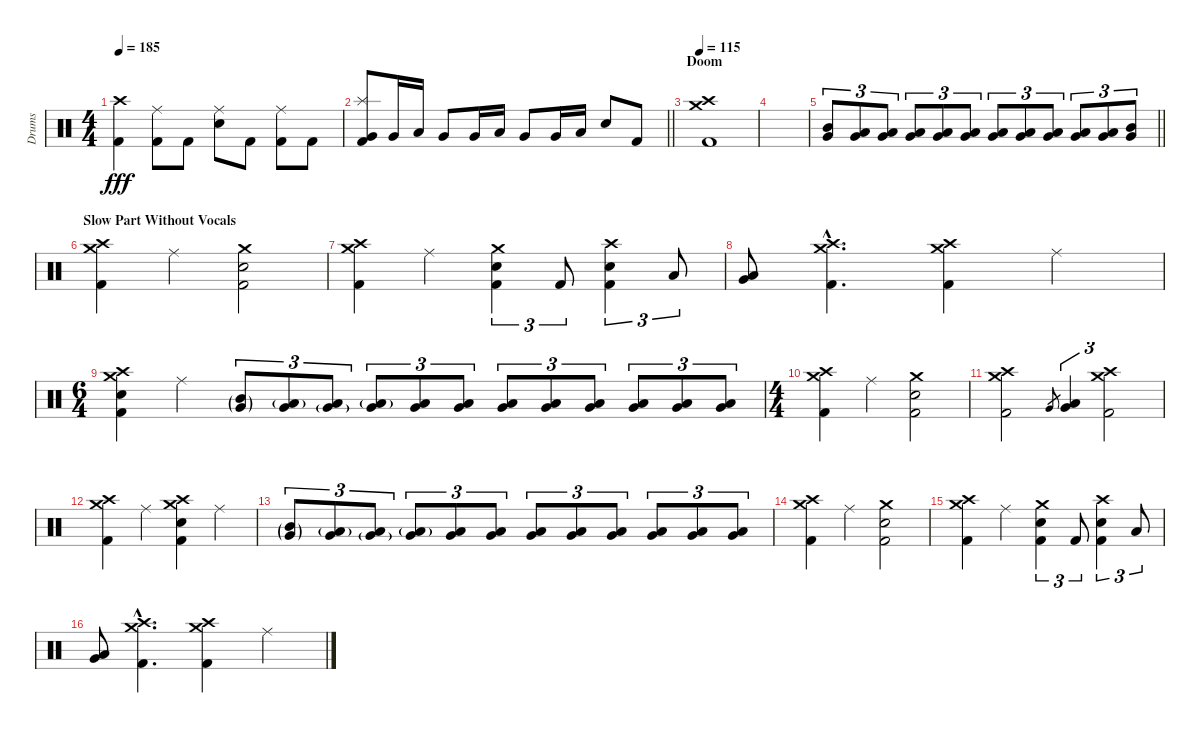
\track ("Drums" "Drums") {instrument percussion}
\staff {score}
\articulation defaults
\ts (4 4)
\tempo 185
\clef neutral
\ks c
("Crash high (hit)" "Kick (hit) 2").4{dy fff} ("Ride (middle)" "Kick (hit) 2").8 "Kick (hit) 2".8 ("Ride (middle)" "Electric Snare (hit)").8 "Kick (hit) 2".8 ("Ride (middle)" "Kick (hit) 2").8 "Kick (hit) 2".8 |
\barLineRight lightlight
("Splash (hit)" "Very Low Tom (hit)" "Kick (hit) 2").8 "Very Low Tom (hit)".16 "Low Floor Tom (hit)".16 "Very Low Tom (hit)".8 "Very Low Tom (hit)".16 "Low Floor Tom (hit)".16 "Very Low Tom (hit)".8 "Very Low Tom (hit)".16 "Low Floor Tom (hit)".16 "Electric Snare (hit)".8 "Kick (hit) 2".8 |
\section ("" "Doom")
\tempo 115
("Crash high (hit)" "Crash medium (hit)" "Kick (hit) 2").1 |
|
\barLineRight lightlight
("Mid Tom (hit)" "Very Low Tom (hit)").8{tu (3 2)} ("Low Tom (hit)" "Very Low Tom (hit)").8{tu (3 2)} ("Low Tom (hit)" "Very Low Tom (hit)").8{tu (3 2)} ("Low Tom (hit)" "Very Low Tom (hit)").8{tu (3 2)} ("Low Tom (hit)" "Very Low Tom (hit)").8{tu (3 2)} ("Low Tom (hit)" "Very Low Tom (hit)").8{tu (3 2)} ("Low Tom (hit)" "Very Low Tom (hit)").8{tu (3 2)} ("Low Tom (hit)" "Very Low Tom (hit)").8{tu (3 2)} ("Low Tom (hit)" "Very Low Tom (hit)").8{tu (3 2)} ("Low Tom (hit)" "Very Low Tom (hit)").8{tu (3 2)} ("Low Tom (hit)" "Very Low Tom (hit)").8{tu (3 2)} ("Mid Tom (hit)" "Very Low Tom (hit)").8{tu (3 2)} |
\section ("" "Slow Part Without Vocals")
("Crash high (hit)" "Crash medium (hit)" "Kick (hit) 2").4 "Ride (middle)".4 ("Crash medium (hit)" "Electric Snare (hit)" "Kick (hit) 2").2 |
("Crash high (hit)" "Crash medium (hit)" "Kick (hit) 2").4 "Ride (middle)".4 ("Crash medium (hit)" "Electric Snare (hit)" "Kick (hit) 2").4{tu (3 2)} "Kick (hit) 2".8{tu (3 2)} ("Crash high (hit)" "Electric Snare (hit)" "Kick (hit) 2").4{tu (3 2)} "Low Tom (hit)".8{tu (3 2)} |
("Low Floor Tom (hit)" "Very Low Tom (hit)").8 ("Crash high (hit)"{hac} "Crash medium (hit)"{hac} "Kick (hit) 2"{hac}).4{d} ("Crash high (hit)" "Crash medium (hit)" "Kick (hit) 2").4 "Ride (middle)".4 |
\ts (6 4)
("Crash high (hit)" "Crash medium (hit)" "Electric Snare (hit)" "Kick (hit) 2").4 "Ride (middle)".4 ("Mid Tom (hit)"{g} "Very Low Tom (hit)"{g}).8{tu (3 2)} ("Low Tom (hit)"{g} "Very Low Tom (hit)").8{tu (3 2)} ("Low Tom (hit)" "Very Low Tom (hit)"{g}).8{tu (3 2)} ("Low Tom (hit)"{g} "Very Low Tom (hit)").8{tu (3 2)} ("Low Tom (hit)" "Very Low Tom (hit)").8{tu (3 2)} ("Low Tom (hit)" "Very Low Tom (hit)").8{tu (3 2)} ("Low Tom (hit)" "Very Low Tom (hit)").8{tu (3 2)} ("Low Tom (hit)" "Very Low Tom (hit)").8{tu (3 2)} ("Low Tom (hit)" "Very Low Tom (hit)").8{tu (3 2)} ("Low Tom (hit)" "Very Low Tom (hit)").8{tu (3 2)} ("Low Tom (hit)" "Very Low Tom (hit)").8{tu (3 2)} ("Low Tom (hit)" "Very Low Tom (hit)").8{tu (3 2)} |
\ts (4 4)
("Crash high (hit)" "Crash medium (hit)" "Kick (hit) 2").4 "Ride (middle)".4 ("Crash medium (hit)" "Electric Snare (hit)" "Kick (hit) 2").2 |
("Crash high (hit)" "Crash medium (hit)" "Kick (hit) 2").2 "Very Low Tom (hit)".8{gr} ("Very Low Tom (hit)" "Low Tom (hit)").4{tu (3 2)} ("Crash high (hit)" "Crash medium (hit)" "Kick (hit) 2").2{tu (3 2)} |
("Crash high (hit)" "Crash medium (hit)" "Kick (hit) 2").4 "Ride (middle)".4 ("Crash high (hit)" "Crash medium (hit)" "Electric Snare (hit)" "Kick (hit) 2").4 "Ride (middle)".4 |
("Mid Tom (hit)"{g} "Very Low Tom (hit)"{g}).8{tu (3 2)} ("Low Tom (hit)"{g} "Very Low Tom (hit)").8{tu (3 2)} ("Low Tom (hit)" "Very Low Tom (hit)"{g}).8{tu (3 2)} ("Low Tom (hit)"{g} "Very Low Tom (hit)").8{tu (3 2)} ("Low Tom (hit)" "Very Low Tom (hit)").8{tu (3 2)} ("Low Tom (hit)" "Very Low Tom (hit)").8{tu (3 2)} ("Low Tom (hit)" "Very Low Tom (hit)").8{tu (3 2)} ("Low Tom (hit)" "Very Low Tom (hit)").8{tu (3 2)} ("Low Tom (hit)" "Very Low Tom (hit)").8{tu (3 2)} ("Low Tom (hit)" "Very Low Tom (hit)").8{tu (3 2)} ("Low Tom (hit)" "Very Low Tom (hit)").8{tu (3 2)} ("Low Tom (hit)" "Very Low Tom (hit)").8{tu (3 2)} |
("Crash high (hit)" "Crash medium (hit)" "Kick (hit) 2").4 "Ride (middle)".4 ("Crash medium (hit)" "Electric Snare (hit)" "Kick (hit) 2").2 |
("Crash high (hit)" "Crash medium (hit)" "Kick (hit) 2").4 "Ride (middle)".4 ("Crash medium (hit)" "Electric Snare (hit)" "Kick (hit) 2").4{tu (3 2)} "Kick (hit) 2".8{tu (3 2)} ("Crash high (hit)" "Electric Snare (hit)" "Kick (hit) 2").4{tu (3 2)} "Low Tom (hit)".8{tu (3 2)} |
("Low Floor Tom (hit)" "Very Low Tom (hit)").8 ("Crash high (hit)"{hac} "Crash medium (hit)"{hac} "Kick (hit) 2"{hac}).4{d} ("Crash high (hit)" "Crash medium (hit)" "Kick (hit) 2").4 "Ride (middle)".4
